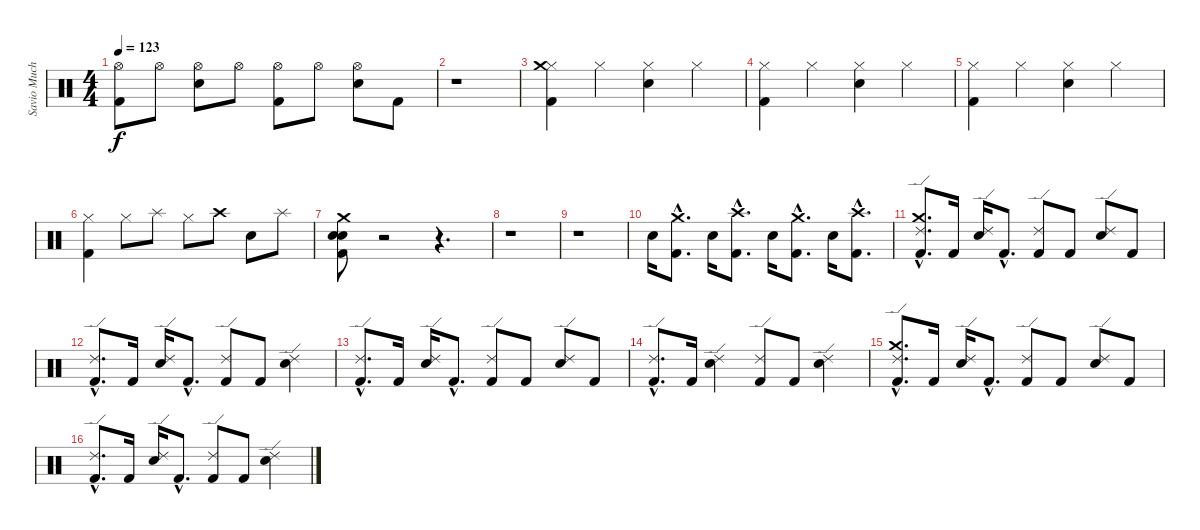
\track ("Savio Muchacho (Drums)" "Savio Much") {instrument percussion}
\staff {score}
\articulation defaults
\ts (4 4)
\tempo 123
\clef neutral
\ks c
("Hi-Hat (open)" "Kick (hit) 2").8{dy f} "Hi-Hat (open)".8 ("Hi-Hat (open)" "Snare (hit) 2").8 "Hi-Hat (open)".8 ("Hi-Hat (open)" "Kick (hit) 2").8 "Hi-Hat (open)".8 ("Hi-Hat (open)" "Snare (hit) 2").8 "Kick (hit) 2".8 |
r.1 |
("Hi-Hat (closed)" "Kick (hit) 2" "Crash medium (hit)").4 "Hi-Hat (closed)".4 ("Hi-Hat (closed)" "Snare (hit) 2").4 "Hi-Hat (closed)".4 |
("Hi-Hat (closed)" "Kick (hit) 2").4 "Hi-Hat (closed)".4 ("Hi-Hat (closed)" "Snare (hit) 2").4 "Hi-Hat (closed)".4 |
("Hi-Hat (closed)" "Kick (hit) 2").4 "Hi-Hat (closed)".4 ("Hi-Hat (closed)" "Snare (hit) 2").4 "Hi-Hat (closed)".4 |
("Hi-Hat (closed)" "Kick (hit) 2").4 "Hi-Hat (closed)".8 "Splash (hit)".8 "Hi-Hat (closed)".8 "Crash high (hit)".8 "Snare (hit) 2".8 "Splash (hit)".8 |
("Crash medium (hit)" "Kick (hit) 2" "Snare (hit) 2" "Snare (hit) 2").8 r.2 r.4{d} |
r.1 |
r.1 |
"Snare (hit) 2".16 ("Kick (hit) 2"{hac} "Crash medium (hit)"{hac}).8{d} "Snare (hit) 2".16 ("Kick (hit) 2"{hac} "Crash high (hit)"{hac}).8{d} "Snare (hit) 2".16 ("Kick (hit) 2"{hac} "Crash medium (hit)"{hac}).8{d} "Snare (hit) 2".16 ("Kick (hit) 2"{hac} "Crash high (hit)"{hac}).8{d} |
("Ride (edge) 2"{hac} "Kick (hit) 2"{hac} "Crash medium (hit)"{hac}).8{d} "Kick (hit) 2".16 ("Ride (edge) 2" "Snare (hit) 2").16 "Kick (hit) 2"{hac}.8{d} ("Ride (edge) 2" "Kick (hit) 2").8 "Kick (hit) 2".8 ("Ride (edge) 2" "Snare (hit) 2").8 "Kick (hit) 2".8 |
("Ride (edge) 2"{hac} "Kick (hit) 2"{hac}).8{d} "Kick (hit) 2".16 ("Ride (edge) 2" "Snare (hit) 2").16 "Kick (hit) 2"{hac}.8{d} ("Ride (edge) 2" "Kick (hit) 2").8 "Kick (hit) 2".8 ("Ride (edge) 2" "Snare (hit) 2").4 |
("Ride (edge) 2"{hac} "Kick (hit) 2"{hac}).8{d} "Kick (hit) 2".16 ("Ride (edge) 2" "Snare (hit) 2").16 "Kick (hit) 2"{hac}.8{d} ("Ride (edge) 2" "Kick (hit) 2").8 "Kick (hit) 2".8 ("Ride (edge) 2" "Snare (hit) 2").8 "Kick (hit) 2".8 |
("Ride (edge) 2"{hac} "Kick (hit) 2"{hac}).8{d} "Kick (hit) 2".16 ("Ride (edge) 2" "Snare (hit) 2").4 ("Ride (edge) 2" "Kick (hit) 2").8 "Kick (hit) 2".8 ("Ride (edge) 2" "Snare (hit) 2").4 |
("Ride (edge) 2"{hac} "Kick (hit) 2"{hac} "Crash medium (hit)"{hac}).8{d} "Kick (hit) 2".16 ("Ride (edge) 2" "Snare (hit) 2").16 "Kick (hit) 2"{hac}.8{d} ("Ride (edge) 2" "Kick (hit) 2").8 "Kick (hit) 2".8 ("Ride (edge) 2" "Snare (hit) 2").8 "Kick (hit) 2".8 |
("Ride (edge) 2"{hac} "Kick (hit) 2"{hac}).8{d} "Kick (hit) 2".16 ("Ride (edge) 2" "Snare (hit) 2").16 "Kick (hit) 2"{hac}.8{d} ("Ride (edge) 2" "Kick (hit) 2").8 "Kick (hit) 2".8 ("Ride (edge) 2" "Snare (hit) 2").4
